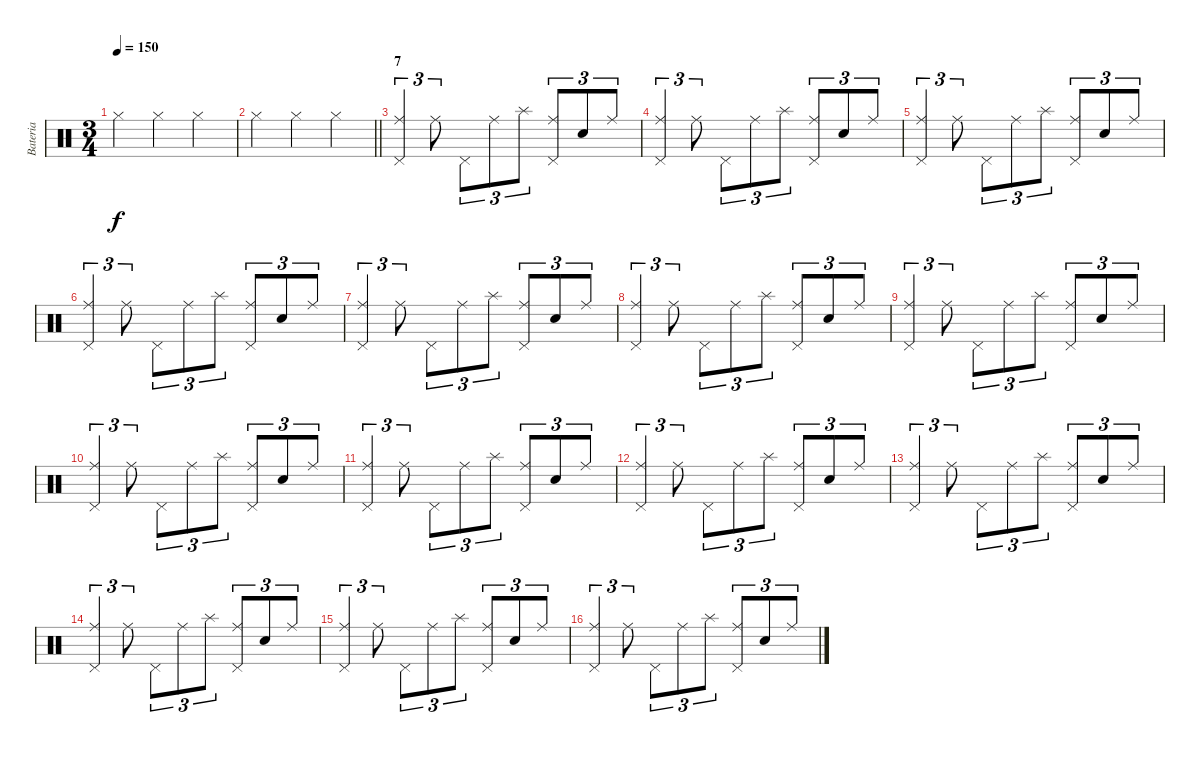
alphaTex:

\track ("Bateria" "Bateria") {instrument percussion}
\staff {score}
\articulation defaults
\ts (3 4)
\tempo 150
\clef neutral
\ks c "Hi-Hat (closed)".4{dy f} "Hi-Hat (closed)".4 "Hi-Hat (closed)".4
|
\barLineRight lightlight "Hi-Hat (closed)".4 "Hi-Hat (closed)".4 "Hi-Hat (closed)".4
|
\section ("" "7")
("Ride (middle)" "Pedal Hi-Hat (hit)").4{tu (3 2)} "Ride (middle)".8{tu (3 2)} "Pedal Hi-Hat (hit)".8{tu (3 2)} "Ride (middle)".8{tu (3 2)} "Splash (hit)".8{tu (3 2)} ("Ride (middle)" "Pedal Hi-Hat (hit)").8{tu (3 2)} "Snare (hit)".8{tu (3 2)} "Ride (middle)".8{tu (3 2)} |
("Ride (middle)" "Pedal Hi-Hat (hit)").4{tu (3 2)} "Ride (middle)".8{tu (3 2)} "Pedal Hi-Hat (hit)".8{tu (3 2)} "Ride (middle)".8{tu (3 2)} "Splash (hit)".8{tu (3 2)} ("Ride (middle)" "Pedal Hi-Hat (hit)").8{tu (3 2)} "Snare (hit)".8{tu (3 2)} "Ride (middle)".8{tu (3 2)} |
("Ride (middle)" "Pedal Hi-Hat (hit)").4{tu (3 2)} "Ride (middle)".8{tu (3 2)} "Pedal Hi-Hat (hit)".8{tu (3 2)} "Ride (middle)".8{tu (3 2)} "Splash (hit)".8{tu (3 2)} ("Ride (middle)" "Pedal Hi-Hat (hit)").8{tu (3 2)} "Snare (hit)".8{tu (3 2)} "Ride (middle)".8{tu (3 2)} |
("Ride (middle)" "Pedal Hi-Hat (hit)").4{tu (3 2)} "Ride (middle)".8{tu (3 2)} "Pedal Hi-Hat (hit)".8{tu (3 2)} "Ride (middle)".8{tu (3 2)} "Splash (hit)".8{tu (3 2)} ("Ride (middle)" "Pedal Hi-Hat (hit)").8{tu (3 2)} "Snare (hit)".8{tu (3 2)} "Ride (middle)".8{tu (3 2)} |
("Ride (middle)" "Pedal Hi-Hat (hit)").4{tu (3 2)} "Ride (middle)".8{tu (3 2)} "Pedal Hi-Hat (hit)".8{tu (3 2)} "Ride (middle)".8{tu (3 2)} "Splash (hit)".8{tu (3 2)} ("Ride (middle)" "Pedal Hi-Hat (hit)").8{tu (3 2)} "Snare (hit)".8{tu (3 2)} "Ride (middle)".8{tu (3 2)} |
("Ride (middle)" "Pedal Hi-Hat (hit)").4{tu (3 2)} "Ride (middle)".8{tu (3 2)} "Pedal Hi-Hat (hit)".8{tu (3 2)} "Ride (middle)".8{tu (3 2)} "Splash (hit)".8{tu (3 2)} ("Ride (middle)" "Pedal Hi-Hat (hit)").8{tu (3 2)} "Snare (hit)".8{tu (3 2)} "Ride (middle)".8{tu (3 2)} |
("Ride (middle)" "Pedal Hi-Hat (hit)").4{tu (3 2)} "Ride (middle)".8{tu (3 2)} "Pedal Hi-Hat (hit)".8{tu (3 2)} "Ride (middle)".8{tu (3 2)} "Splash (hit)".8{tu (3 2)} ("Ride (middle)" "Pedal Hi-Hat (hit)").8{tu (3 2)} "Snare (hit)".8{tu (3 2)} "Ride (middle)".8{tu (3 2)} |
("Ride (middle)" "Pedal Hi-Hat (hit)").4{tu (3 2)} "Ride (middle)".8{tu (3 2)} "Pedal Hi-Hat (hit)".8{tu (3 2)} "Ride (middle)".8{tu (3 2)} "Splash (hit)".8{tu (3 2)} ("Ride (middle)" "Pedal Hi-Hat (hit)").8{tu (3 2)} "Snare (hit)".8{tu (3 2)} "Ride (middle)".8{tu (3 2)} |
("Ride (middle)" "Pedal Hi-Hat (hit)").4{tu (3 2)} "Ride (middle)".8{tu (3 2)} "Pedal Hi-Hat (hit)".8{tu (3 2)} "Ride (middle)".8{tu (3 2)} "Splash (hit)".8{tu (3 2)} ("Ride (middle)" "Pedal Hi-Hat (hit)").8{tu (3 2)} "Snare (hit)".8{tu (3 2)} "Ride (middle)".8{tu (3 2)} |
("Ride (middle)" "Pedal Hi-Hat (hit)").4{tu (3 2)} "Ride (middle)".8{tu (3 2)} "Pedal Hi-Hat (hit)".8{tu (3 2)} "Ride (middle)".8{tu (3 2)} "Splash (hit)".8{tu (3 2)} ("Ride (middle)" "Pedal Hi-Hat (hit)").8{tu (3 2)} "Snare (hit)".8{tu (3 2)} "Ride (middle)".8{tu (3 2)} |
("Ride (middle)" "Pedal Hi-Hat (hit)").4{tu (3 2)} "Ride (middle)".8{tu (3 2)} "Pedal Hi-Hat (hit)".8{tu (3 2)} "Ride (middle)".8{tu (3 2)} "Splash (hit)".8{tu (3 2)} ("Ride (middle)" "Pedal Hi-Hat (hit)").8{tu (3 2)} "Snare (hit)".8{tu (3 2)} "Ride (middle)".8{tu (3 2)} |
("Ride (middle)" "Pedal Hi-Hat (hit)").4{tu (3 2)} "Ride (middle)".8{tu (3 2)} "Pedal Hi-Hat (hit)".8{tu (3 2)} "Ride (middle)".8{tu (3 2)} "Splash (hit)".8{tu (3 2)} ("Ride (middle)" "Pedal Hi-Hat (hit)").8{tu (3 2)} "Snare (hit)".8{tu (3 2)} "Ride (middle)".8{tu (3 2)} |
("Ride (middle)" "Pedal Hi-Hat (hit)").4{tu (3 2)} "Ride (middle)".8{tu (3 2)} "Pedal Hi-Hat (hit)".8{tu (3 2)} "Ride (middle)".8{tu (3 2)} "Splash (hit)".8{tu (3 2)} ("Ride (middle)" "Pedal Hi-Hat (hit)").8{tu (3 2)} "Snare (hit)".8{tu (3 2)} "Ride (middle)".8{tu (3 2)} |
("Ride (middle)" "Pedal Hi-Hat (hit)").4{tu (3 2)} "Ride (middle)".8{tu (3 2)} "Pedal Hi-Hat (hit)".8{tu (3 2)} "Ride (middle)".8{tu (3 2)} "Splash (hit)".8{tu (3 2)} ("Ride (middle)" "Pedal Hi-Hat (hit)").8{tu (3 2)} "Snare (hit)".8{tu (3 2)} "Ride (middle)".8{tu (3 2)}
